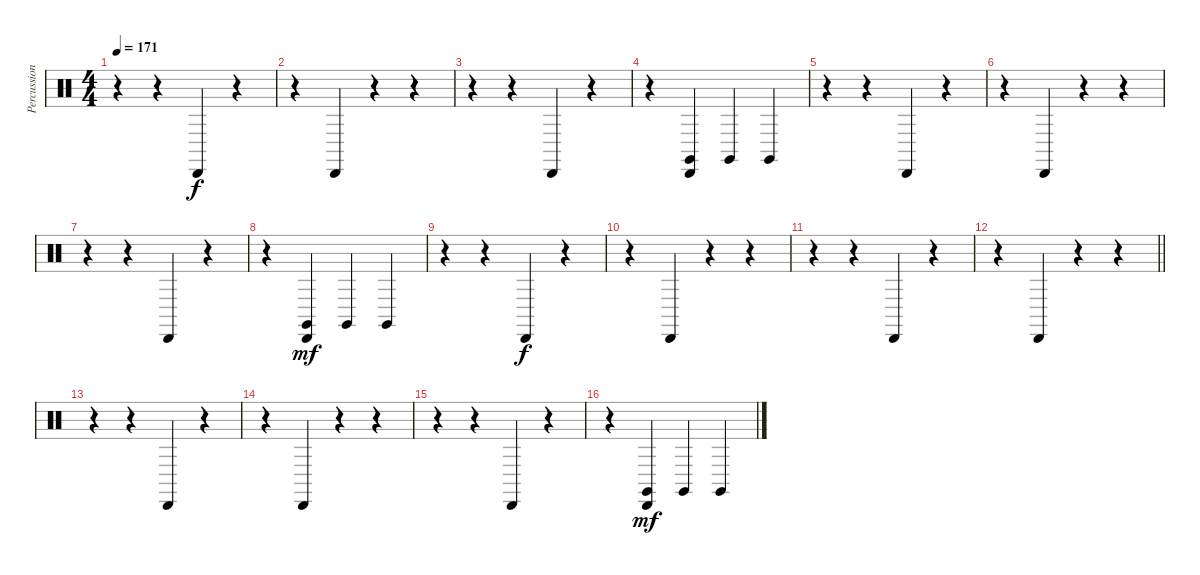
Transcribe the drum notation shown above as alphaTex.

\track ("Percussion" "Percussion") {instrument percussion}
\staff {score}
\articulation defaults
\ts (4 4)
\tempo 171
\clef neutral
\ks c
r.4{dy mf} r.4 "Cabasa (hit)".4{dy f} r.4 |
r.4 "Cabasa (hit)".4 r.4 r.4 |
r.4 r.4 "Cabasa (hit)".4 r.4 |
r.4 ("Cabasa (hit)" "Claves (hit)").4 "Claves (hit)".4 "Claves (hit)".4 |
r.4 r.4 "Cabasa (hit)".4 r.4 |
r.4 "Cabasa (hit)".4 r.4 r.4 |
r.4 r.4 "Cabasa (hit)".4 r.4 |
r.4 ("Cabasa (hit)" "Claves (hit)").4{dy mf} "Claves (hit)".4 "Claves (hit)".4 |
r.4 r.4 "Cabasa (hit)".4{dy f} r.4 |
r.4 "Cabasa (hit)".4 r.4 r.4 |
r.4 r.4 "Cabasa (hit)".4 r.4 |
\barLineRight lightlight
r.4 "Cabasa (hit)".4 r.4 r.4 |
\section ("" "")
r.4 r.4 "Cabasa (hit)".4 r.4 |
r.4 "Cabasa (hit)".4 r.4 r.4 |
r.4 r.4 "Cabasa (hit)".4 r.4 |
r.4 ("Cabasa (hit)" "Claves (hit)").4{dy mf} "Claves (hit)".4 "Claves (hit)".4
